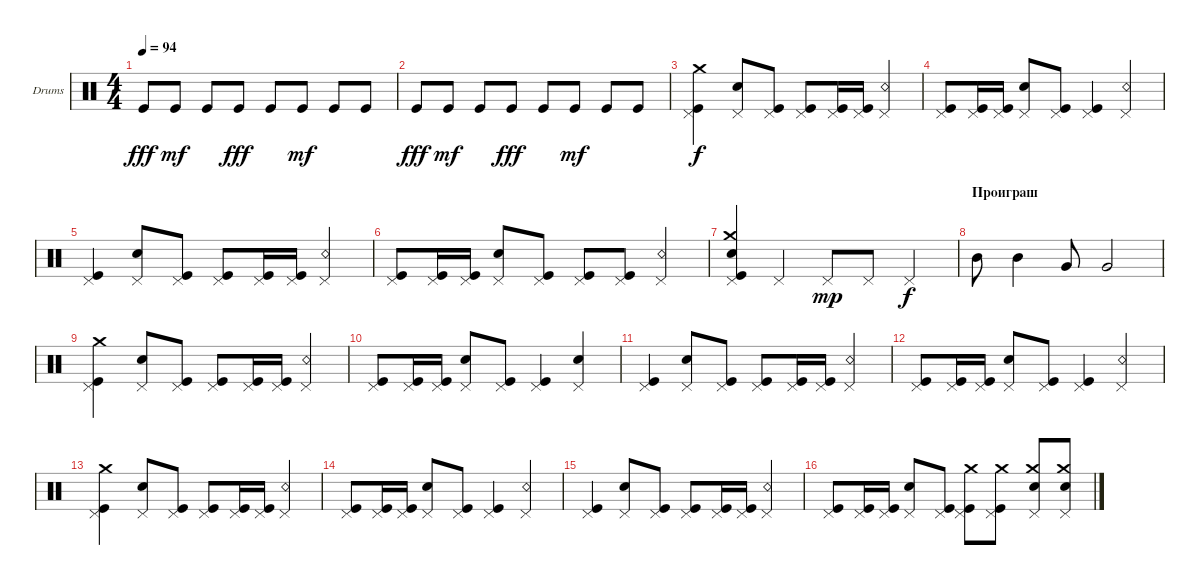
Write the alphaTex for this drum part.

\defaultSystemsLayout 4
\bracketExtendMode groupsimilarinstruments
\firstSystemTrackNameOrientation horizontal
\otherSystemsTrackNameOrientation horizontal
\track ("Е. Кулаков" "Drums") {instrument percussion}
\staff {score}
\articulation defaults
\ts (4 4)
\tempo 94
\clef neutral
\ks c "Kick (hit)".8{dy fff} "Kick (hit)".8{dy mf} "Kick (hit)".8 "Kick (hit)".8{dy fff} "Kick (hit)".8 "Kick (hit)".8{dy mf} "Kick (hit)".8 "Kick (hit)".8
|
"Kick (hit)".8{dy fff} "Kick (hit)".8{dy mf} "Kick (hit)".8 "Kick (hit)".8{dy fff} "Kick (hit)".8 "Kick (hit)".8{dy mf} "Kick (hit)".8 "Kick (hit)".8 |
("Kick (hit)" "Pedal Hi-Hat (hit)" "Crash medium (hit)").4{dy f} ("Snare (hit) 2" "Pedal Hi-Hat (hit)").8 ("Kick (hit)" "Pedal Hi-Hat (hit)").8 ("Kick (hit)" "Pedal Hi-Hat (hit)").8 ("Kick (hit)" "Pedal Hi-Hat (hit)").16 ("Kick (hit)" "Pedal Hi-Hat (hit)").16 ("Snare (rim shot)" "Pedal Hi-Hat (hit)").4 |
("Kick (hit)" "Pedal Hi-Hat (hit)").8 ("Pedal Hi-Hat (hit)" "Kick (hit)").16 ("Pedal Hi-Hat (hit)" "Kick (hit)").16 ("Snare (hit) 2" "Pedal Hi-Hat (hit)").8 ("Kick (hit)" "Pedal Hi-Hat (hit)").8 ("Kick (hit)" "Pedal Hi-Hat (hit)").4 ("Snare (rim shot)" "Pedal Hi-Hat (hit)").4 |
("Kick (hit)" "Pedal Hi-Hat (hit)").4 ("Snare (hit) 2" "Pedal Hi-Hat (hit)").8 ("Kick (hit)" "Pedal Hi-Hat (hit)").8 ("Kick (hit)" "Pedal Hi-Hat (hit)").8 ("Kick (hit)" "Pedal Hi-Hat (hit)").16 ("Kick (hit)" "Pedal Hi-Hat (hit)").16 ("Snare (rim shot)" "Pedal Hi-Hat (hit)").4 |
("Kick (hit)" "Pedal Hi-Hat (hit)").8 ("Pedal Hi-Hat (hit)" "Kick (hit)").16 ("Pedal Hi-Hat (hit)" "Kick (hit)").16 ("Snare (hit) 2" "Pedal Hi-Hat (hit)").8 ("Kick (hit)" "Pedal Hi-Hat (hit)").8 ("Kick (hit)" "Pedal Hi-Hat (hit)").8 ("Kick (hit)" "Pedal Hi-Hat (hit)").8 ("Snare (rim shot)" "Pedal Hi-Hat (hit)").4 |
("Kick (hit)" "Snare (hit) 2" "Pedal Hi-Hat (hit)" "Crash medium (hit)").4 "Pedal Hi-Hat (hit)".4 "Pedal Hi-Hat (hit)".8{dy mp} "Pedal Hi-Hat (hit)".8 "Pedal Hi-Hat (hit)".4{dy f} |
\section ("" "Проиграш")
"Mid Tom (hit)".8 "Mid Tom (hit)".4 "Very Low Tom (hit)".8 "Very Low Tom (hit)".2 |
("Kick (hit)" "Pedal Hi-Hat (hit)" "Crash medium (hit)").4 ("Snare (hit) 2" "Pedal Hi-Hat (hit)").8 ("Kick (hit)" "Pedal Hi-Hat (hit)").8 ("Kick (hit)" "Pedal Hi-Hat (hit)").8 ("Kick (hit)" "Pedal Hi-Hat (hit)").16 ("Kick (hit)" "Pedal Hi-Hat (hit)").16 ("Snare (rim shot)" "Pedal Hi-Hat (hit)").4 |
("Kick (hit)" "Pedal Hi-Hat (hit)").8 ("Pedal Hi-Hat (hit)" "Kick (hit)").16 ("Pedal Hi-Hat (hit)" "Kick (hit)").16 ("Snare (hit) 2" "Pedal Hi-Hat (hit)").8 ("Kick (hit)" "Pedal Hi-Hat (hit)").8 ("Kick (hit)" "Pedal Hi-Hat (hit)").4 ("Pedal Hi-Hat (hit)" "Snare (hit) 2").4 |
("Kick (hit)" "Pedal Hi-Hat (hit)").4 ("Snare (hit) 2" "Pedal Hi-Hat (hit)").8 ("Kick (hit)" "Pedal Hi-Hat (hit)").8 ("Kick (hit)" "Pedal Hi-Hat (hit)").8 ("Kick (hit)" "Pedal Hi-Hat (hit)").16 ("Kick (hit)" "Pedal Hi-Hat (hit)").16 ("Snare (rim shot)" "Pedal Hi-Hat (hit)").4 |
("Kick (hit)" "Pedal Hi-Hat (hit)").8 ("Pedal Hi-Hat (hit)" "Kick (hit)").16 ("Pedal Hi-Hat (hit)" "Kick (hit)").16 ("Snare (hit) 2" "Pedal Hi-Hat (hit)").8 ("Kick (hit)" "Pedal Hi-Hat (hit)").8 ("Kick (hit)" "Pedal Hi-Hat (hit)").4 ("Snare (rim shot)" "Pedal Hi-Hat (hit)").4 |
("Kick (hit)" "Pedal Hi-Hat (hit)" "Crash medium (hit)").4 ("Snare (hit) 2" "Pedal Hi-Hat (hit)").8 ("Kick (hit)" "Pedal Hi-Hat (hit)").8 ("Kick (hit)" "Pedal Hi-Hat (hit)").8 ("Kick (hit)" "Pedal Hi-Hat (hit)").16 ("Kick (hit)" "Pedal Hi-Hat (hit)").16 ("Snare (rim shot)" "Pedal Hi-Hat (hit)").4 |
("Kick (hit)" "Pedal Hi-Hat (hit)").8 ("Pedal Hi-Hat (hit)" "Kick (hit)").16 ("Pedal Hi-Hat (hit)" "Kick (hit)").16 ("Snare (hit) 2" "Pedal Hi-Hat (hit)").8 ("Kick (hit)" "Pedal Hi-Hat (hit)").8 ("Kick (hit)" "Pedal Hi-Hat (hit)").4 ("Snare (rim shot)" "Pedal Hi-Hat (hit)").4 |
("Kick (hit)" "Pedal Hi-Hat (hit)").4 ("Snare (hit) 2" "Pedal Hi-Hat (hit)").8 ("Kick (hit)" "Pedal Hi-Hat (hit)").8 ("Kick (hit)" "Pedal Hi-Hat (hit)").8 ("Kick (hit)" "Pedal Hi-Hat (hit)").16 ("Kick (hit)" "Pedal Hi-Hat (hit)").16 ("Snare (rim shot)" "Pedal Hi-Hat (hit)").4 |
("Kick (hit)" "Pedal Hi-Hat (hit)").8 ("Pedal Hi-Hat (hit)" "Kick (hit)").16 ("Pedal Hi-Hat (hit)" "Kick (hit)").16 ("Snare (hit) 2" "Pedal Hi-Hat (hit)").8 ("Kick (hit)" "Pedal Hi-Hat (hit)").8 ("Kick (hit)" "Pedal Hi-Hat (hit)" "Crash medium (hit)").8 ("Kick (hit)" "Pedal Hi-Hat (hit)" "Crash medium (hit)").8 ("Pedal Hi-Hat (hit)" "Crash medium (hit)" "Snare (hit) 2").8 ("Pedal Hi-Hat (hit)" "Crash medium (hit)" "Snare (hit) 2").8
